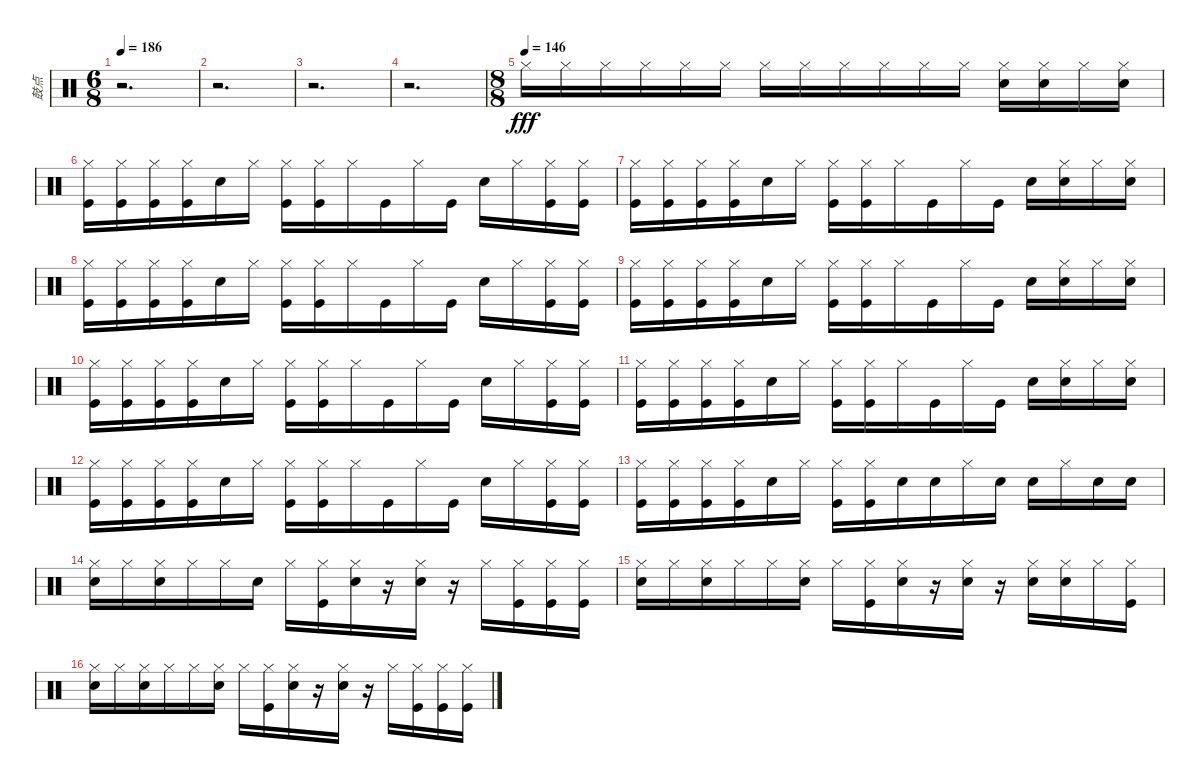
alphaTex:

\track ("鼓点" "鼓点") {instrument percussion}
\staff {score}
\articulation defaults
\ts (6 8)
\tempo 186
\clef neutral
\ks c
r.2{d dy fff} |
r.2{d} |
r.2{d} |
r.2{d} |
\ts (8 8)
\tempo (146)
"Hi-Hat (closed)".16 "Hi-Hat (closed)".16 "Hi-Hat (closed)".16 "Hi-Hat (closed)".16 "Hi-Hat (closed)".16 "Hi-Hat (closed)".16 "Hi-Hat (closed)".16 "Hi-Hat (closed)".16 "Hi-Hat (closed)".16 "Hi-Hat (closed)".16 "Hi-Hat (closed)".16 "Hi-Hat (closed)".16 ("Snare (hit) 2" "Hi-Hat (closed)").16 ("Snare (hit) 2" "Hi-Hat (closed)").16 "Hi-Hat (closed)".16 ("Snare (hit) 2" "Hi-Hat (closed)").16 |
("Kick (hit)" "Hi-Hat (closed)").16 ("Kick (hit)" "Hi-Hat (closed)").16 ("Kick (hit)" "Hi-Hat (closed)").16 ("Kick (hit)" "Hi-Hat (closed)").16 "Snare (hit) 2".16 "Hi-Hat (closed)".16 ("Kick (hit)" "Hi-Hat (closed)").16 ("Kick (hit)" "Hi-Hat (closed)").16 "Hi-Hat (closed)".16 "Kick (hit)".16 "Hi-Hat (closed)".16 "Kick (hit)".16 "Snare (hit) 2".16 "Hi-Hat (closed)".16 ("Kick (hit)" "Hi-Hat (closed)").16 ("Kick (hit)" "Hi-Hat (closed)").16 |
("Kick (hit)" "Hi-Hat (closed)").16 ("Kick (hit)" "Hi-Hat (closed)").16 ("Kick (hit)" "Hi-Hat (closed)").16 ("Kick (hit)" "Hi-Hat (closed)").16 "Snare (hit) 2".16 "Hi-Hat (closed)".16 ("Kick (hit)" "Hi-Hat (closed)").16 ("Kick (hit)" "Hi-Hat (closed)").16 "Hi-Hat (closed)".16 "Kick (hit)".16 "Hi-Hat (closed)".16 "Kick (hit)".16 "Snare (hit) 2".16 ("Snare (hit) 2" "Hi-Hat (closed)").16 "Hi-Hat (closed)".16 ("Snare (hit) 2" "Hi-Hat (closed)").16 |
("Kick (hit)" "Hi-Hat (closed)").16 ("Kick (hit)" "Hi-Hat (closed)").16 ("Kick (hit)" "Hi-Hat (closed)").16 ("Kick (hit)" "Hi-Hat (closed)").16 "Snare (hit) 2".16 "Hi-Hat (closed)".16 ("Kick (hit)" "Hi-Hat (closed)").16 ("Kick (hit)" "Hi-Hat (closed)").16 "Hi-Hat (closed)".16 "Kick (hit)".16 "Hi-Hat (closed)".16 "Kick (hit)".16 "Snare (hit) 2".16 "Hi-Hat (closed)".16 ("Kick (hit)" "Hi-Hat (closed)").16 ("Kick (hit)" "Hi-Hat (closed)").16 |
("Kick (hit)" "Hi-Hat (closed)").16 ("Kick (hit)" "Hi-Hat (closed)").16 ("Kick (hit)" "Hi-Hat (closed)").16 ("Kick (hit)" "Hi-Hat (closed)").16 "Snare (hit) 2".16 "Hi-Hat (closed)".16 ("Kick (hit)" "Hi-Hat (closed)").16 ("Kick (hit)" "Hi-Hat (closed)").16 "Hi-Hat (closed)".16 "Kick (hit)".16 "Hi-Hat (closed)".16 "Kick (hit)".16 "Snare (hit) 2".16 ("Snare (hit) 2" "Hi-Hat (closed)").16 "Hi-Hat (closed)".16 ("Snare (hit) 2" "Hi-Hat (closed)").16 |
("Kick (hit)" "Hi-Hat (closed)").16 ("Kick (hit)" "Hi-Hat (closed)").16 ("Kick (hit)" "Hi-Hat (closed)").16 ("Kick (hit)" "Hi-Hat (closed)").16 "Snare (hit) 2".16 "Hi-Hat (closed)".16 ("Kick (hit)" "Hi-Hat (closed)").16 ("Kick (hit)" "Hi-Hat (closed)").16 "Hi-Hat (closed)".16 "Kick (hit)".16 "Hi-Hat (closed)".16 "Kick (hit)".16 "Snare (hit) 2".16 "Hi-Hat (closed)".16 ("Kick (hit)" "Hi-Hat (closed)").16 ("Kick (hit)" "Hi-Hat (closed)").16 |
("Kick (hit)" "Hi-Hat (closed)").16 ("Kick (hit)" "Hi-Hat (closed)").16 ("Kick (hit)" "Hi-Hat (closed)").16 ("Kick (hit)" "Hi-Hat (closed)").16 "Snare (hit) 2".16 "Hi-Hat (closed)".16 ("Kick (hit)" "Hi-Hat (closed)").16 ("Kick (hit)" "Hi-Hat (closed)").16 "Hi-Hat (closed)".16 "Kick (hit)".16 "Hi-Hat (closed)".16 "Kick (hit)".16 "Snare (hit) 2".16 ("Snare (hit) 2" "Hi-Hat (closed)").16 "Hi-Hat (closed)".16 ("Snare (hit) 2" "Hi-Hat (closed)").16 |
("Kick (hit)" "Hi-Hat (closed)").16 ("Kick (hit)" "Hi-Hat (closed)").16 ("Kick (hit)" "Hi-Hat (closed)").16 ("Kick (hit)" "Hi-Hat (closed)").16 "Snare (hit) 2".16 "Hi-Hat (closed)".16 ("Kick (hit)" "Hi-Hat (closed)").16 ("Kick (hit)" "Hi-Hat (closed)").16 "Hi-Hat (closed)".16 "Kick (hit)".16 "Hi-Hat (closed)".16 "Kick (hit)".16 "Snare (hit) 2".16 "Hi-Hat (closed)".16 ("Kick (hit)" "Hi-Hat (closed)").16 ("Kick (hit)" "Hi-Hat (closed)").16 |
("Kick (hit)" "Hi-Hat (closed)").16 ("Kick (hit)" "Hi-Hat (closed)").16 ("Kick (hit)" "Hi-Hat (closed)").16 ("Kick (hit)" "Hi-Hat (closed)").16 "Snare (hit) 2".16 "Hi-Hat (closed)".16 ("Kick (hit)" "Hi-Hat (closed)").16 ("Kick (hit)" "Hi-Hat (closed)").16 "Snare (hit) 2".16 "Snare (hit) 2".16 "Hi-Hat (closed)".16 "Snare (hit) 2".16 "Snare (hit) 2".16 "Hi-Hat (closed)".16 "Snare (hit) 2".16 "Snare (hit) 2".16 |
("Snare (hit) 2" "Hi-Hat (closed)").16 "Hi-Hat (closed)".16 ("Snare (hit) 2" "Hi-Hat (closed)").16 "Hi-Hat (closed)".16 "Hi-Hat (closed)".16 "Snare (hit) 2".16 "Hi-Hat (closed)".16 ("Kick (hit)" "Hi-Hat (closed)").16 ("Snare (hit) 2" "Hi-Hat (closed)").16 r.16 ("Snare (hit) 2" "Hi-Hat (closed)").16 r.16 "Hi-Hat (closed)".16 ("Kick (hit)" "Hi-Hat (closed)").16 ("Kick (hit)" "Hi-Hat (closed)").16 ("Kick (hit)" "Hi-Hat (closed)").16 |
("Snare (hit) 2" "Hi-Hat (closed)").16 "Hi-Hat (closed)".16 ("Snare (hit) 2" "Hi-Hat (closed)").16 "Hi-Hat (closed)".16 "Hi-Hat (closed)".16 ("Snare (hit) 2" "Hi-Hat (closed)").16 "Hi-Hat (closed)".16 ("Kick (hit)" "Hi-Hat (closed)").16 ("Snare (hit) 2" "Hi-Hat (closed)").16 r.16 ("Snare (hit) 2" "Hi-Hat (closed)").16 r.16 ("Snare (hit) 2" "Hi-Hat (closed)").16 ("Snare (hit) 2" "Hi-Hat (closed)").16 "Hi-Hat (closed)".16 ("Kick (hit)" "Hi-Hat (closed)").16 |
("Snare (hit) 2" "Hi-Hat (closed)").16 "Hi-Hat (closed)".16 ("Snare (hit) 2" "Hi-Hat (closed)").16 "Hi-Hat (closed)".16 "Hi-Hat (closed)".16 ("Snare (hit) 2" "Hi-Hat (closed)").16 "Hi-Hat (closed)".16 ("Kick (hit)" "Hi-Hat (closed)").16 ("Snare (hit) 2" "Hi-Hat (closed)").16 r.16 ("Snare (hit) 2" "Hi-Hat (closed)").16 r.16 "Hi-Hat (closed)".16 ("Kick (hit)" "Hi-Hat (closed)").16 ("Kick (hit)" "Hi-Hat (closed)").16 ("Kick (hit)" "Hi-Hat (closed)").16
